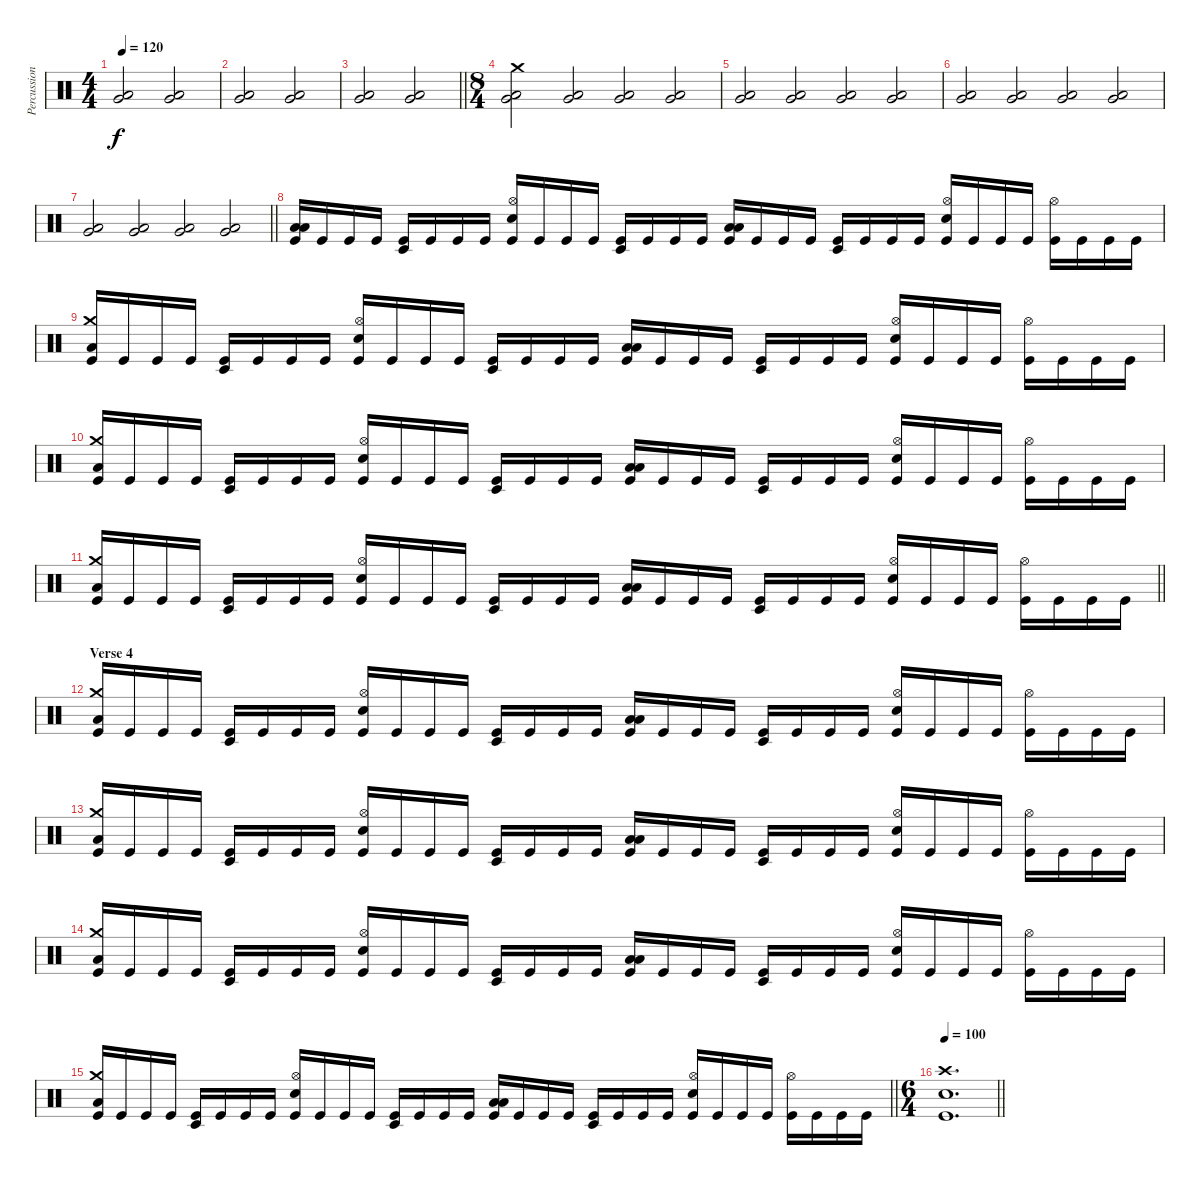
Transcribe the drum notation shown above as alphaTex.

\track ("Percussions" "Percussion") {instrument percussion}
\staff {score}
\articulation defaults
\ts (4 4)
\tempo 120
\clef neutral
\ks c
("Very Low Tom (hit)" "Low Floor Tom (hit)").2{dy f} ("Very Low Tom (hit)" "Low Floor Tom (hit)").2 |
("Very Low Tom (hit)" "Low Floor Tom (hit)").2 ("Very Low Tom (hit)" "Low Floor Tom (hit)").2 |
\barLineRight lightlight
("Very Low Tom (hit)" "Low Floor Tom (hit)").2 ("Very Low Tom (hit)" "Low Floor Tom (hit)").2 |
\ts (8 4)
\section ("" "")
("Crash medium (hit)" "Very Low Tom (hit)" "Low Floor Tom (hit)").2 ("Very Low Tom (hit)" "Low Floor Tom (hit)").2 ("Very Low Tom (hit)" "Low Floor Tom (hit)").2 ("Very Low Tom (hit)" "Low Floor Tom (hit)").2 |
("Very Low Tom (hit)" "Low Floor Tom (hit)").2 ("Very Low Tom (hit)" "Low Floor Tom (hit)").2 ("Very Low Tom (hit)" "Low Floor Tom (hit)").2 ("Very Low Tom (hit)" "Low Floor Tom (hit)").2 |
("Very Low Tom (hit)" "Low Floor Tom (hit)").2 ("Very Low Tom (hit)" "Low Floor Tom (hit)").2 ("Very Low Tom (hit)" "Low Floor Tom (hit)").2 ("Very Low Tom (hit)" "Low Floor Tom (hit)").2 |
\barLineRight lightlight
("Very Low Tom (hit)" "Low Floor Tom (hit)").2 ("Very Low Tom (hit)" "Low Floor Tom (hit)").2 ("Very Low Tom (hit)" "Low Floor Tom (hit)").2 ("Very Low Tom (hit)" "Low Floor Tom (hit)").2 |
\section ("" "")
("Low Floor Tom (hit)" "Low Floor Tom (hit)" "Kick (hit)").16 "Kick (hit)".16 "Kick (hit)".16 "Kick (hit)".16 ("Timbale low (hit)" "Kick (hit)").16 "Kick (hit)".16 "Kick (hit)".16 "Kick (hit)".16 ("Hi-Hat (open)" "Electric Snare (hit)" "Kick (hit)").16 "Kick (hit)".16 "Kick (hit)".16 "Kick (hit)".16 ("Timbale low (hit)" "Kick (hit)").16 "Kick (hit)".16 "Kick (hit)".16 "Kick (hit)".16 ("Low Floor Tom (hit)" "Low Floor Tom (hit)" "Kick (hit)").16 "Kick (hit)".16 "Kick (hit)".16 "Kick (hit)".16 ("Timbale low (hit)" "Kick (hit)").16 "Kick (hit)".16 "Kick (hit)".16 "Kick (hit)".16 ("Hi-Hat (open)" "Electric Snare (hit)" "Kick (hit)").16 "Kick (hit)".16 "Kick (hit)".16 "Kick (hit)".16 ("Hi-Hat (open)" "Kick (hit)").16 "Kick (hit)".16 "Kick (hit)".16 "Kick (hit)".16 |
("Crash medium (hit)" "Low Floor Tom (hit)" "Kick (hit)").16 "Kick (hit)".16 "Kick (hit)".16 "Kick (hit)".16 ("Timbale low (hit)" "Kick (hit)").16 "Kick (hit)".16 "Kick (hit)".16 "Kick (hit)".16 ("Hi-Hat (open)" "Electric Snare (hit)" "Kick (hit)").16 "Kick (hit)".16 "Kick (hit)".16 "Kick (hit)".16 ("Timbale low (hit)" "Kick (hit)").16 "Kick (hit)".16 "Kick (hit)".16 "Kick (hit)".16 ("Low Floor Tom (hit)" "Low Floor Tom (hit)" "Kick (hit)").16 "Kick (hit)".16 "Kick (hit)".16 "Kick (hit)".16 ("Timbale low (hit)" "Kick (hit)").16 "Kick (hit)".16 "Kick (hit)".16 "Kick (hit)".16 ("Hi-Hat (open)" "Electric Snare (hit)" "Kick (hit)").16 "Kick (hit)".16 "Kick (hit)".16 "Kick (hit)".16 ("Hi-Hat (open)" "Kick (hit)").16 "Kick (hit)".16 "Kick (hit)".16 "Kick (hit)".16 |
("Crash medium (hit)" "Low Floor Tom (hit)" "Kick (hit)").16 "Kick (hit)".16 "Kick (hit)".16 "Kick (hit)".16 ("Timbale low (hit)" "Kick (hit)").16 "Kick (hit)".16 "Kick (hit)".16 "Kick (hit)".16 ("Hi-Hat (open)" "Electric Snare (hit)" "Kick (hit)").16 "Kick (hit)".16 "Kick (hit)".16 "Kick (hit)".16 ("Timbale low (hit)" "Kick (hit)").16 "Kick (hit)".16 "Kick (hit)".16 "Kick (hit)".16 ("Low Floor Tom (hit)" "Low Floor Tom (hit)" "Kick (hit)").16 "Kick (hit)".16 "Kick (hit)".16 "Kick (hit)".16 ("Timbale low (hit)" "Kick (hit)").16 "Kick (hit)".16 "Kick (hit)".16 "Kick (hit)".16 ("Hi-Hat (open)" "Electric Snare (hit)" "Kick (hit)").16 "Kick (hit)".16 "Kick (hit)".16 "Kick (hit)".16 ("Hi-Hat (open)" "Kick (hit)").16 "Kick (hit)".16 "Kick (hit)".16 "Kick (hit)".16 |
\barLineRight lightlight
("Crash medium (hit)" "Low Floor Tom (hit)" "Kick (hit)").16 "Kick (hit)".16 "Kick (hit)".16 "Kick (hit)".16 ("Timbale low (hit)" "Kick (hit)").16 "Kick (hit)".16 "Kick (hit)".16 "Kick (hit)".16 ("Hi-Hat (open)" "Electric Snare (hit)" "Kick (hit)").16 "Kick (hit)".16 "Kick (hit)".16 "Kick (hit)".16 ("Timbale low (hit)" "Kick (hit)").16 "Kick (hit)".16 "Kick (hit)".16 "Kick (hit)".16 ("Low Floor Tom (hit)" "Low Floor Tom (hit)" "Kick (hit)").16 "Kick (hit)".16 "Kick (hit)".16 "Kick (hit)".16 ("Timbale low (hit)" "Kick (hit)").16 "Kick (hit)".16 "Kick (hit)".16 "Kick (hit)".16 ("Hi-Hat (open)" "Electric Snare (hit)" "Kick (hit)").16 "Kick (hit)".16 "Kick (hit)".16 "Kick (hit)".16 ("Hi-Hat (open)" "Kick (hit)").16 "Kick (hit)".16 "Kick (hit)".16 "Kick (hit)".16 |
\section ("" "Verse 4")
("Crash medium (hit)" "Low Floor Tom (hit)" "Kick (hit)").16 "Kick (hit)".16 "Kick (hit)".16 "Kick (hit)".16 ("Timbale low (hit)" "Kick (hit)").16 "Kick (hit)".16 "Kick (hit)".16 "Kick (hit)".16 ("Hi-Hat (open)" "Electric Snare (hit)" "Kick (hit)").16 "Kick (hit)".16 "Kick (hit)".16 "Kick (hit)".16 ("Timbale low (hit)" "Kick (hit)").16 "Kick (hit)".16 "Kick (hit)".16 "Kick (hit)".16 ("Low Floor Tom (hit)" "Low Floor Tom (hit)" "Kick (hit)").16 "Kick (hit)".16 "Kick (hit)".16 "Kick (hit)".16 ("Timbale low (hit)" "Kick (hit)").16 "Kick (hit)".16 "Kick (hit)".16 "Kick (hit)".16 ("Hi-Hat (open)" "Electric Snare (hit)" "Kick (hit)").16 "Kick (hit)".16 "Kick (hit)".16 "Kick (hit)".16 ("Hi-Hat (open)" "Kick (hit)").16 "Kick (hit)".16 "Kick (hit)".16 "Kick (hit)".16 |
("Crash medium (hit)" "Low Floor Tom (hit)" "Kick (hit)").16 "Kick (hit)".16 "Kick (hit)".16 "Kick (hit)".16 ("Timbale low (hit)" "Kick (hit)").16 "Kick (hit)".16 "Kick (hit)".16 "Kick (hit)".16 ("Hi-Hat (open)" "Electric Snare (hit)" "Kick (hit)").16 "Kick (hit)".16 "Kick (hit)".16 "Kick (hit)".16 ("Timbale low (hit)" "Kick (hit)").16 "Kick (hit)".16 "Kick (hit)".16 "Kick (hit)".16 ("Low Floor Tom (hit)" "Low Floor Tom (hit)" "Kick (hit)").16 "Kick (hit)".16 "Kick (hit)".16 "Kick (hit)".16 ("Timbale low (hit)" "Kick (hit)").16 "Kick (hit)".16 "Kick (hit)".16 "Kick (hit)".16 ("Hi-Hat (open)" "Electric Snare (hit)" "Kick (hit)").16 "Kick (hit)".16 "Kick (hit)".16 "Kick (hit)".16 ("Hi-Hat (open)" "Kick (hit)").16 "Kick (hit)".16 "Kick (hit)".16 "Kick (hit)".16 |
("Crash medium (hit)" "Low Floor Tom (hit)" "Kick (hit)").16 "Kick (hit)".16 "Kick (hit)".16 "Kick (hit)".16 ("Timbale low (hit)" "Kick (hit)").16 "Kick (hit)".16 "Kick (hit)".16 "Kick (hit)".16 ("Hi-Hat (open)" "Electric Snare (hit)" "Kick (hit)").16 "Kick (hit)".16 "Kick (hit)".16 "Kick (hit)".16 ("Timbale low (hit)" "Kick (hit)").16 "Kick (hit)".16 "Kick (hit)".16 "Kick (hit)".16 ("Low Floor Tom (hit)" "Low Floor Tom (hit)" "Kick (hit)").16 "Kick (hit)".16 "Kick (hit)".16 "Kick (hit)".16 ("Timbale low (hit)" "Kick (hit)").16 "Kick (hit)".16 "Kick (hit)".16 "Kick (hit)".16 ("Hi-Hat (open)" "Electric Snare (hit)" "Kick (hit)").16 "Kick (hit)".16 "Kick (hit)".16 "Kick (hit)".16 ("Hi-Hat (open)" "Kick (hit)").16 "Kick (hit)".16 "Kick (hit)".16 "Kick (hit)".16 |
\barLineRight lightlight
("Crash medium (hit)" "Low Floor Tom (hit)" "Kick (hit)").16 "Kick (hit)".16 "Kick (hit)".16 "Kick (hit)".16 ("Timbale low (hit)" "Kick (hit)").16 "Kick (hit)".16 "Kick (hit)".16 "Kick (hit)".16 ("Hi-Hat (open)" "Electric Snare (hit)" "Kick (hit)").16 "Kick (hit)".16 "Kick (hit)".16 "Kick (hit)".16 ("Timbale low (hit)" "Kick (hit)").16 "Kick (hit)".16 "Kick (hit)".16 "Kick (hit)".16 ("Low Floor Tom (hit)" "Low Floor Tom (hit)" "Kick (hit)").16 "Kick (hit)".16 "Kick (hit)".16 "Kick (hit)".16 ("Timbale low (hit)" "Kick (hit)").16 "Kick (hit)".16 "Kick (hit)".16 "Kick (hit)".16 ("Hi-Hat (open)" "Electric Snare (hit)" "Kick (hit)").16 "Kick (hit)".16 "Kick (hit)".16 "Kick (hit)".16 ("Hi-Hat (open)" "Kick (hit)").16 "Kick (hit)".16 "Kick (hit)".16 "Kick (hit)".16 |
\ts (6 4)
\tempo 100
\barLineRight lightlight
("Crash high (hit)" "Electric Snare (hit)" "Kick (hit)").1{d}
